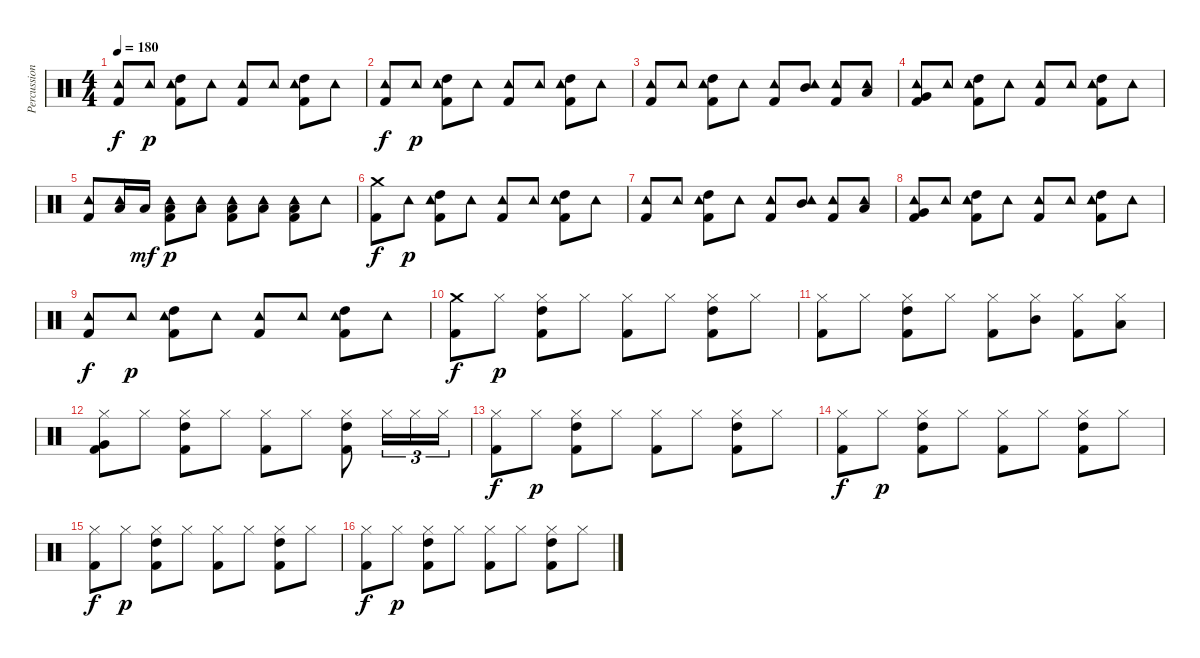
\track ("Percussions" "Percussion") {instrument percussion}
\staff {score}
\articulation defaults
\ts (4 4)
\tempo 180
\clef neutral
\ks c
("Tambourine (hit)" "Kick (hit) 2").8{dy f} "Tambourine (hit)".8{dy p} ("Tambourine (hit)" "High Tom (hit)" "Kick (hit) 2").8 "Tambourine (hit)".8 ("Tambourine (hit)" "Kick (hit) 2").8 "Tambourine (hit)".8 ("Tambourine (hit)" "High Tom (hit)" "Kick (hit) 2").8 "Tambourine (hit)".8 |
("Tambourine (hit)" "Kick (hit) 2").8{dy f} "Tambourine (hit)".8{dy p} ("Tambourine (hit)" "High Tom (hit)" "Kick (hit) 2").8 "Tambourine (hit)".8 ("Tambourine (hit)" "Kick (hit) 2").8 "Tambourine (hit)".8 ("Tambourine (hit)" "High Tom (hit)" "Kick (hit) 2").8 "Tambourine (hit)".8 |
("Tambourine (hit)" "Kick (hit) 2").8 "Tambourine (hit)".8 ("Tambourine (hit)" "High Tom (hit)" "Kick (hit) 2").8 "Tambourine (hit)".8 ("Tambourine (hit)" "Kick (hit) 2").8 ("Tambourine (hit)" "Mid Tom (hit)").8 ("Tambourine (hit)" "Kick (hit) 2").8 ("Tambourine (hit)" "Low Tom (hit)").8 |
("Tambourine (hit)" "Very Low Tom (hit)" "Kick (hit) 2").8 "Tambourine (hit)".8 ("Tambourine (hit)" "High Tom (hit)" "Kick (hit) 2").8 "Tambourine (hit)".8 ("Tambourine (hit)" "Kick (hit) 2").8 "Tambourine (hit)".8 ("Tambourine (hit)" "High Tom (hit)" "Kick (hit) 2").8 "Tambourine (hit)".8 |
("Tambourine (hit)" "Kick (hit) 2").8 ("Tambourine (hit)" "Low Tom (hit)").16 "Low Tom (hit)".16{dy mf} ("Tambourine (hit)" "Low Tom (hit)" "Kick (hit) 2").8{dy p} ("Tambourine (hit)" "Low Tom (hit)").8 ("Tambourine (hit)" "Low Tom (hit)" "Kick (hit) 2").8 ("Tambourine (hit)" "Low Tom (hit)").8 ("Tambourine (hit)" "Low Tom (hit)" "Kick (hit) 2").8 "Tambourine (hit)".8 |
("Crash medium (hit)" "Kick (hit) 2").8{dy f} "Tambourine (hit)".8{dy p} ("Tambourine (hit)" "High Tom (hit)" "Kick (hit) 2").8 "Tambourine (hit)".8 ("Tambourine (hit)" "Kick (hit) 2").8 "Tambourine (hit)".8 ("Tambourine (hit)" "High Tom (hit)" "Kick (hit) 2").8 "Tambourine (hit)".8 |
("Tambourine (hit)" "Kick (hit) 2").8 "Tambourine (hit)".8 ("Tambourine (hit)" "High Tom (hit)" "Kick (hit) 2").8 "Tambourine (hit)".8 ("Tambourine (hit)" "Kick (hit) 2").8 ("Tambourine (hit)" "Mid Tom (hit)").8 ("Tambourine (hit)" "Kick (hit) 2").8 ("Tambourine (hit)" "Low Tom (hit)").8 |
("Tambourine (hit)" "Very Low Tom (hit)" "Kick (hit) 2").8 "Tambourine (hit)".8 ("Tambourine (hit)" "High Tom (hit)" "Kick (hit) 2").8 "Tambourine (hit)".8 ("Tambourine (hit)" "Kick (hit) 2").8 "Tambourine (hit)".8 ("Tambourine (hit)" "High Tom (hit)" "Kick (hit) 2").8 "Tambourine (hit)".8 |
("Tambourine (hit)" "Kick (hit) 2").8{dy f} "Tambourine (hit)".8{dy p} ("Tambourine (hit)" "High Tom (hit)" "Kick (hit) 2").8 "Tambourine (hit)".8 ("Tambourine (hit)" "Kick (hit) 2").8 "Tambourine (hit)".8 ("Tambourine (hit)" "High Tom (hit)" "Kick (hit) 2").8 "Tambourine (hit)".8 |
("Crash medium (hit)" "Kick (hit) 2").8{dy f} "Hi-Hat (closed)".8{dy p} ("Hi-Hat (closed)" "High Tom (hit)" "Kick (hit) 2").8 "Hi-Hat (closed)".8 ("Hi-Hat (closed)" "Kick (hit) 2").8 "Hi-Hat (closed)".8 ("Hi-Hat (closed)" "High Tom (hit)" "Kick (hit) 2").8 "Hi-Hat (closed)".8 |
("Hi-Hat (closed)" "Kick (hit) 2").8 "Hi-Hat (closed)".8 ("Hi-Hat (closed)" "High Tom (hit)" "Kick (hit) 2").8 "Hi-Hat (closed)".8 ("Hi-Hat (closed)" "Kick (hit) 2").8 ("Hi-Hat (closed)" "Mid Tom (hit)").8 ("Hi-Hat (closed)" "Kick (hit) 2").8 ("Hi-Hat (closed)" "Low Tom (hit)").8 |
("Hi-Hat (closed)" "Very Low Tom (hit)" "Kick (hit) 2").8 "Hi-Hat (closed)".8 ("Hi-Hat (closed)" "High Tom (hit)" "Kick (hit) 2").8 "Hi-Hat (closed)".8 ("Hi-Hat (closed)" "Kick (hit) 2").8 "Hi-Hat (closed)".8 ("Hi-Hat (closed)" "High Tom (hit)" "Kick (hit) 2").8 "Hi-Hat (closed)".16{tu (3 2)} "Hi-Hat (closed)".16{tu (3 2)} "Hi-Hat (closed)".16{tu (3 2)} |
("Hi-Hat (closed)" "Kick (hit) 2").8{dy f} "Hi-Hat (closed)".8{dy p} ("Hi-Hat (closed)" "High Tom (hit)" "Kick (hit) 2").8 "Hi-Hat (closed)".8 ("Hi-Hat (closed)" "Kick (hit) 2").8 "Hi-Hat (closed)".8 ("Hi-Hat (closed)" "High Tom (hit)" "Kick (hit) 2").8 "Hi-Hat (closed)".8 |
("Hi-Hat (closed)" "Kick (hit) 2").8{dy f} "Hi-Hat (closed)".8{dy p} ("Hi-Hat (closed)" "High Tom (hit)" "Kick (hit) 2").8 "Hi-Hat (closed)".8 ("Hi-Hat (closed)" "Kick (hit) 2").8 "Hi-Hat (closed)".8 ("Hi-Hat (closed)" "High Tom (hit)" "Kick (hit) 2").8 "Hi-Hat (closed)".8 |
("Hi-Hat (closed)" "Kick (hit) 2").8{dy f} "Hi-Hat (closed)".8{dy p} ("Hi-Hat (closed)" "High Tom (hit)" "Kick (hit) 2").8 "Hi-Hat (closed)".8 ("Hi-Hat (closed)" "Kick (hit) 2").8 "Hi-Hat (closed)".8 ("Hi-Hat (closed)" "High Tom (hit)" "Kick (hit) 2").8 "Hi-Hat (closed)".8 |
("Hi-Hat (closed)" "Kick (hit) 2").8{dy f} "Hi-Hat (closed)".8{dy p} ("Hi-Hat (closed)" "High Tom (hit)" "Kick (hit) 2").8 "Hi-Hat (closed)".8 ("Hi-Hat (closed)" "Kick (hit) 2").8 "Hi-Hat (closed)".8 ("Hi-Hat (closed)" "High Tom (hit)" "Kick (hit) 2").8 "Hi-Hat (closed)".8
